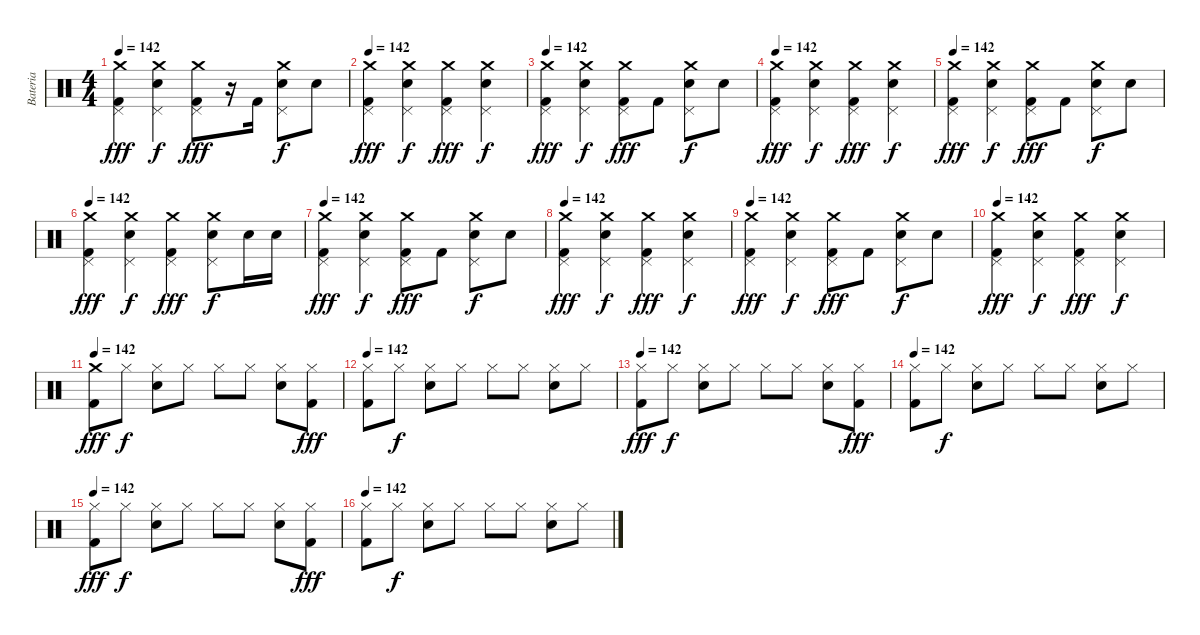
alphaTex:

\track ("Bateria" "Bateria") {instrument percussion}
\staff {score}
\articulation defaults
\ts (4 4)
\tempo 142
\clef neutral
\ks c
("Crash medium (hit)" "Pedal Hi-Hat (hit)" "Kick (hit) 2").4{dy fff} ("Crash medium (hit)" "Pedal Hi-Hat (hit)" "Electric Snare (hit)").4{dy f} ("Crash medium (hit)" "Pedal Hi-Hat (hit)" "Kick (hit) 2").8{dy fff} r.16 "Kick (hit) 2".16 ("Crash medium (hit)" "Pedal Hi-Hat (hit)" "Electric Snare (hit)").8{dy f} "Electric Snare (hit)".8 |
\tempo 142
("Crash medium (hit)" "Pedal Hi-Hat (hit)" "Kick (hit) 2").4{dy fff} ("Crash medium (hit)" "Pedal Hi-Hat (hit)" "Electric Snare (hit)").4{dy f} ("Crash medium (hit)" "Pedal Hi-Hat (hit)" "Kick (hit) 2").4{dy fff} ("Crash medium (hit)" "Pedal Hi-Hat (hit)" "Electric Snare (hit)").4{dy f} |
\tempo 142
("Crash medium (hit)" "Pedal Hi-Hat (hit)" "Kick (hit) 2").4{dy fff} ("Crash medium (hit)" "Pedal Hi-Hat (hit)" "Electric Snare (hit)").4{dy f} ("Crash medium (hit)" "Pedal Hi-Hat (hit)" "Kick (hit) 2").8{dy fff} "Kick (hit) 2".8 ("Crash medium (hit)" "Pedal Hi-Hat (hit)" "Electric Snare (hit)").8{dy f} "Electric Snare (hit)".8 |
\tempo 142
("Crash medium (hit)" "Pedal Hi-Hat (hit)" "Kick (hit) 2").4{dy fff} ("Crash medium (hit)" "Pedal Hi-Hat (hit)" "Electric Snare (hit)").4{dy f} ("Crash medium (hit)" "Pedal Hi-Hat (hit)" "Kick (hit) 2").4{dy fff} ("Crash medium (hit)" "Pedal Hi-Hat (hit)" "Electric Snare (hit)").4{dy f} |
\tempo 142
("Crash medium (hit)" "Pedal Hi-Hat (hit)" "Kick (hit) 2").4{dy fff} ("Crash medium (hit)" "Pedal Hi-Hat (hit)" "Electric Snare (hit)").4{dy f} ("Crash medium (hit)" "Pedal Hi-Hat (hit)" "Kick (hit) 2").8{dy fff} "Kick (hit) 2".8 ("Crash medium (hit)" "Pedal Hi-Hat (hit)" "Electric Snare (hit)").8{dy f} "Electric Snare (hit)".8 |
\tempo 142
("Crash medium (hit)" "Pedal Hi-Hat (hit)" "Kick (hit) 2").4{dy fff} ("Crash medium (hit)" "Pedal Hi-Hat (hit)" "Electric Snare (hit)").4{dy f} ("Crash medium (hit)" "Pedal Hi-Hat (hit)" "Kick (hit) 2").4{dy fff} ("Crash medium (hit)" "Pedal Hi-Hat (hit)" "Electric Snare (hit)").8{dy f} "Electric Snare (hit)".16 "Electric Snare (hit)".16 |
\tempo 142
("Crash medium (hit)" "Pedal Hi-Hat (hit)" "Kick (hit) 2").4{dy fff} ("Crash medium (hit)" "Pedal Hi-Hat (hit)" "Electric Snare (hit)").4{dy f} ("Crash medium (hit)" "Pedal Hi-Hat (hit)" "Kick (hit) 2").8{dy fff} "Kick (hit) 2".8 ("Crash medium (hit)" "Pedal Hi-Hat (hit)" "Electric Snare (hit)").8{dy f} "Electric Snare (hit)".8 |
\tempo 142
("Crash medium (hit)" "Pedal Hi-Hat (hit)" "Kick (hit) 2").4{dy fff} ("Crash medium (hit)" "Pedal Hi-Hat (hit)" "Electric Snare (hit)").4{dy f} ("Crash medium (hit)" "Pedal Hi-Hat (hit)" "Kick (hit) 2").4{dy fff} ("Crash medium (hit)" "Pedal Hi-Hat (hit)" "Electric Snare (hit)").4{dy f} |
\tempo 142
("Crash medium (hit)" "Pedal Hi-Hat (hit)" "Kick (hit) 2").4{dy fff} ("Crash medium (hit)" "Pedal Hi-Hat (hit)" "Electric Snare (hit)").4{dy f} ("Crash medium (hit)" "Pedal Hi-Hat (hit)" "Kick (hit) 2").8{dy fff} "Kick (hit) 2".8 ("Crash medium (hit)" "Pedal Hi-Hat (hit)" "Electric Snare (hit)").8{dy f} "Electric Snare (hit)".8 |
\tempo 142
("Crash medium (hit)" "Pedal Hi-Hat (hit)" "Kick (hit) 2").4{dy fff} ("Crash medium (hit)" "Pedal Hi-Hat (hit)" "Electric Snare (hit)").4{dy f} ("Crash medium (hit)" "Pedal Hi-Hat (hit)" "Kick (hit) 2").4{dy fff} ("Crash medium (hit)" "Pedal Hi-Hat (hit)" "Electric Snare (hit)").4{dy f} |
\tempo 142
("Crash medium (hit)" "Kick (hit) 2").8{dy fff} "Hi-Hat (closed)".8{dy f} ("Hi-Hat (closed)" "Electric Snare (hit)").8 "Hi-Hat (closed)".8 "Hi-Hat (closed)".8 "Hi-Hat (closed)".8 ("Hi-Hat (closed)" "Electric Snare (hit)").8 ("Hi-Hat (closed)" "Kick (hit) 2").8{dy fff} |
\tempo 142
("Hi-Hat (closed)" "Kick (hit) 2").8 "Hi-Hat (closed)".8{dy f} ("Hi-Hat (closed)" "Electric Snare (hit)").8 "Hi-Hat (closed)".8 "Hi-Hat (closed)".8 "Hi-Hat (closed)".8 ("Hi-Hat (closed)" "Electric Snare (hit)").8 "Hi-Hat (closed)".8 |
\tempo 142
("Hi-Hat (closed)" "Kick (hit) 2").8{dy fff} "Hi-Hat (closed)".8{dy f} ("Hi-Hat (closed)" "Electric Snare (hit)").8 "Hi-Hat (closed)".8 "Hi-Hat (closed)".8 "Hi-Hat (closed)".8 ("Hi-Hat (closed)" "Electric Snare (hit)").8 ("Hi-Hat (closed)" "Kick (hit) 2").8{dy fff} |
\tempo 142
("Hi-Hat (closed)" "Kick (hit) 2").8 "Hi-Hat (closed)".8{dy f} ("Hi-Hat (closed)" "Electric Snare (hit)").8 "Hi-Hat (closed)".8 "Hi-Hat (closed)".8 "Hi-Hat (closed)".8 ("Hi-Hat (closed)" "Electric Snare (hit)").8 "Hi-Hat (closed)".8 |
\tempo 142
("Hi-Hat (closed)" "Kick (hit) 2").8{dy fff} "Hi-Hat (closed)".8{dy f} ("Hi-Hat (closed)" "Electric Snare (hit)").8 "Hi-Hat (closed)".8 "Hi-Hat (closed)".8 "Hi-Hat (closed)".8 ("Hi-Hat (closed)" "Electric Snare (hit)").8 ("Hi-Hat (closed)" "Kick (hit) 2").8{dy fff} |
\tempo 142
("Hi-Hat (closed)" "Kick (hit) 2").8 "Hi-Hat (closed)".8{dy f} ("Hi-Hat (closed)" "Electric Snare (hit)").8 "Hi-Hat (closed)".8 "Hi-Hat (closed)".8 "Hi-Hat (closed)".8 ("Hi-Hat (closed)" "Electric Snare (hit)").8 "Hi-Hat (closed)".8
